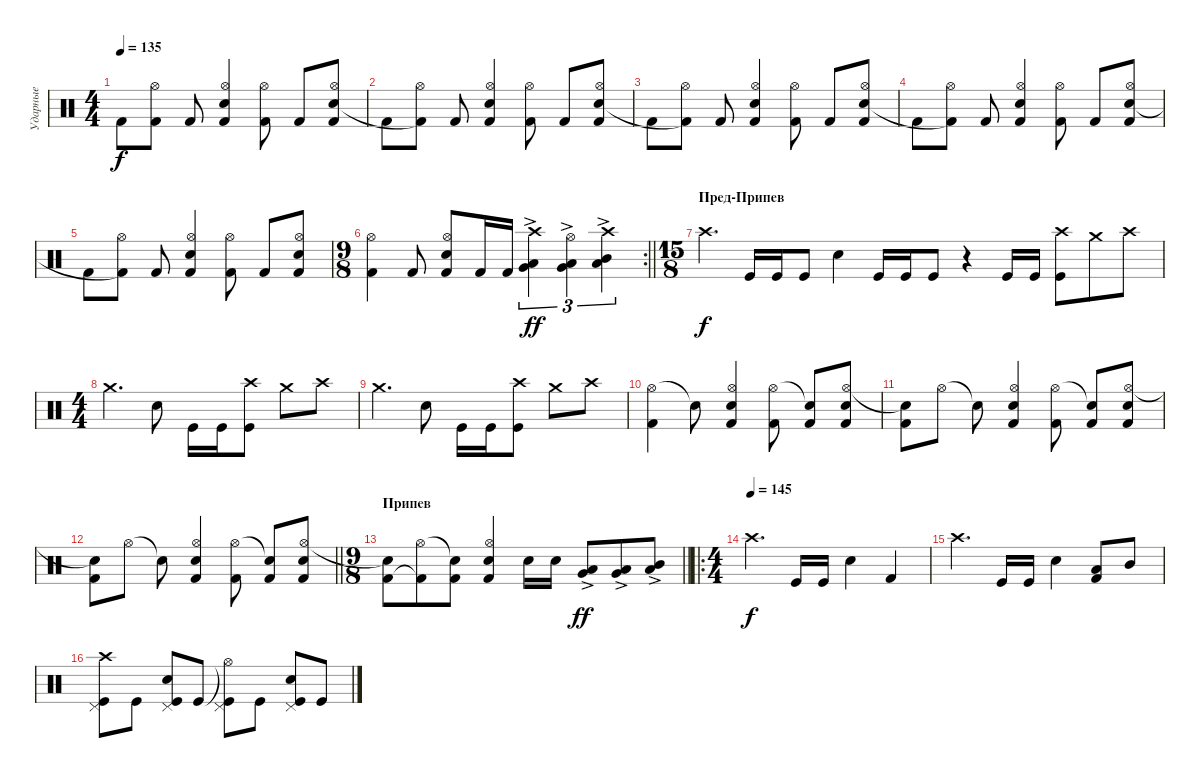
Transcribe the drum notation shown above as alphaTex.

\track ("Ударные" "Ударные") {instrument percussion}
\staff
\articulation defaults
\ts (4 4)
\tempo 135
\clef neutral
\ks c "Kick (hit) 2".8{dy f}
("Hi-Hat (open)" "Kick (hit) 2"{t}).8 "Kick (hit) 2".8 ("Hi-Hat (open)" "Snare (hit) 2" "Kick (hit) 2").4 ("Hi-Hat (open)" "Kick (hit) 2").8 "Kick (hit) 2".8 ("Hi-Hat (open)" "Snare (hit) 2" "Kick (hit) 2").8 |
"Kick (hit) 2".8 ("Hi-Hat (open)" "Kick (hit) 2"{t}).8 "Kick (hit) 2".8 ("Hi-Hat (open)" "Snare (hit) 2" "Kick (hit) 2").4 ("Hi-Hat (open)" "Kick (hit) 2").8 "Kick (hit) 2".8 ("Hi-Hat (open)" "Snare (hit) 2" "Kick (hit) 2").8 |
"Kick (hit) 2".8 ("Hi-Hat (open)" "Kick (hit) 2"{t}).8 "Kick (hit) 2".8 ("Hi-Hat (open)" "Snare (hit) 2" "Kick (hit) 2").4 ("Hi-Hat (open)" "Kick (hit) 2").8 "Kick (hit) 2".8 ("Hi-Hat (open)" "Snare (hit) 2" "Kick (hit) 2").8 |
"Kick (hit) 2".8 ("Hi-Hat (open)" "Kick (hit) 2"{t}).8 "Kick (hit) 2".8 ("Hi-Hat (open)" "Snare (hit) 2" "Kick (hit) 2").4 ("Hi-Hat (open)" "Kick (hit) 2").8 "Kick (hit) 2".8 ("Hi-Hat (open)" "Snare (hit) 2" "Kick (hit) 2").8 |
"Kick (hit) 2".8 ("Hi-Hat (open)" "Kick (hit) 2"{t}).8 "Kick (hit) 2".8 ("Hi-Hat (open)" "Snare (hit) 2" "Kick (hit) 2").4 ("Hi-Hat (open)" "Kick (hit) 2").8 "Kick (hit) 2".8 ("Hi-Hat (open)" "Snare (hit) 2" "Kick (hit) 2").8 |
\rc 2
\ts (9 8)
\barLineRight lightlight
("Hi-Hat (open)" "Kick (hit) 2").4 "Kick (hit) 2".8 ("Hi-Hat (open)" "Snare (hit) 2" "Kick (hit) 2").8 "Kick (hit) 2".16 "Kick (hit) 2".16 ("Low Floor Tom (hit)"{ac} "Very Low Tom (hit)" "Crash high (hit)").4{tu (3 2) dy ff} ("Very Low Tom (hit)"{ac} "Low Tom (hit)" "Hi-Hat (open)").4{tu (3 2)} ("Low Tom (hit)"{ac} "Mid Tom (hit)" "Crash high (hit)").4{tu (3 2)} |
\ts (15 8)
\section ("" "Пред-Припев")
"Crash high (hit)".4{d dy f} "Kick (hit)".16 "Kick (hit)".16 "Kick (hit)".8 "Snare (hit) 2".4 "Kick (hit)".16 "Kick (hit)".16 "Kick (hit)".8 r.4 "Kick (hit)".16 "Kick (hit)".16 ("Crash high (hit)" "Kick (hit)").8 "Crash medium (hit)".8 "Crash high (hit)".8 |
\ts (4 4)
"Crash medium (hit)".4{d} "Snare (hit) 2".8 "Kick (hit)".16 "Kick (hit)".16 ("Crash high (hit)" "Kick (hit)").8 "Crash medium (hit)".8 "Crash high (hit)".8 |
"Crash medium (hit)".4{d} "Snare (hit) 2".8 "Kick (hit)".16 "Kick (hit)".16 ("Crash high (hit)" "Kick (hit)").8 "Crash medium (hit)".8 "Crash high (hit)".8 |
("Hi-Hat (open)" "Kick (hit) 2").4 "Snare (hit)"{t}.8 ("Hi-Hat (open)" "Snare (hit) 2" "Kick (hit) 2").4 ("Hi-Hat (open)" "Kick (hit) 2").8 ("Snare (hit)"{t} "Kick (hit) 2").8 ("Hi-Hat (open)" "Snare (hit) 2" "Kick (hit) 2").8 |
("Snare (hit)"{t} "Kick (hit) 2").8 "Hi-Hat (open)".8 "Snare (hit)"{t}.8 ("Hi-Hat (open)" "Snare (hit) 2" "Kick (hit) 2").4 ("Hi-Hat (open)" "Kick (hit) 2").8 ("Snare (hit)"{t} "Kick (hit) 2").8 ("Hi-Hat (open)" "Snare (hit) 2" "Kick (hit) 2").8 |
\barLineRight lightlight
("Snare (hit)"{t} "Kick (hit) 2").8 "Hi-Hat (open)".8 "Snare (hit)"{t}.8 ("Hi-Hat (open)" "Snare (hit) 2" "Kick (hit) 2").4 ("Hi-Hat (open)" "Kick (hit) 2").8 ("Snare (hit)"{t} "Kick (hit) 2").8 ("Hi-Hat (open)" "Snare (hit) 2" "Kick (hit) 2").8 |
\ts (9 8)
\section ("" "Припев")
\barLineRight lightlight
("Snare (hit)"{t} "Kick (hit) 2").8 ("Hi-Hat (open)" "Kick (hit) 2"{t}).8 ("Snare (hit)"{t} "Kick (hit) 2").8 ("Hi-Hat (open)" "Snare (hit) 2" "Kick (hit) 2").4 "Snare (hit) 2".16 "Snare (hit) 2".16 ("Low Floor Tom (hit)"{ac} "Very Low Tom (hit)").8{dy ff} ("Very Low Tom (hit)"{ac} "Low Tom (hit)").8 ("Low Tom (hit)"{ac} "Mid Tom (hit)").8 |
\ro
\ts (4 4)
\tempo (145)
"Crash high (hit)".4{d dy f} "Kick (hit)".16 "Kick (hit)".16 "Snare (hit) 2".4 "Kick (hit) 2".4 |
"Crash high (hit)".4{d} "Kick (hit)".16 "Kick (hit)".16 "Snare (hit) 2".4 ("Low Tom (hit)" "Kick (hit) 2").8 "Mid Tom (hit)".8 |
("Crash high (hit)" "Pedal Hi-Hat (hit)" "Kick (hit)").8 "Kick (hit)".8 ("Pedal Hi-Hat (hit)" "Snare (hit) 2" "Kick (hit)").8 "Kick (hit)".8 ("Hi-Hat (open)"{t} "Pedal Hi-Hat (hit)" "Kick (hit)").8 "Kick (hit)".8 ("Pedal Hi-Hat (hit)" "Snare (hit) 2" "Kick (hit)").8 "Kick (hit)".8
